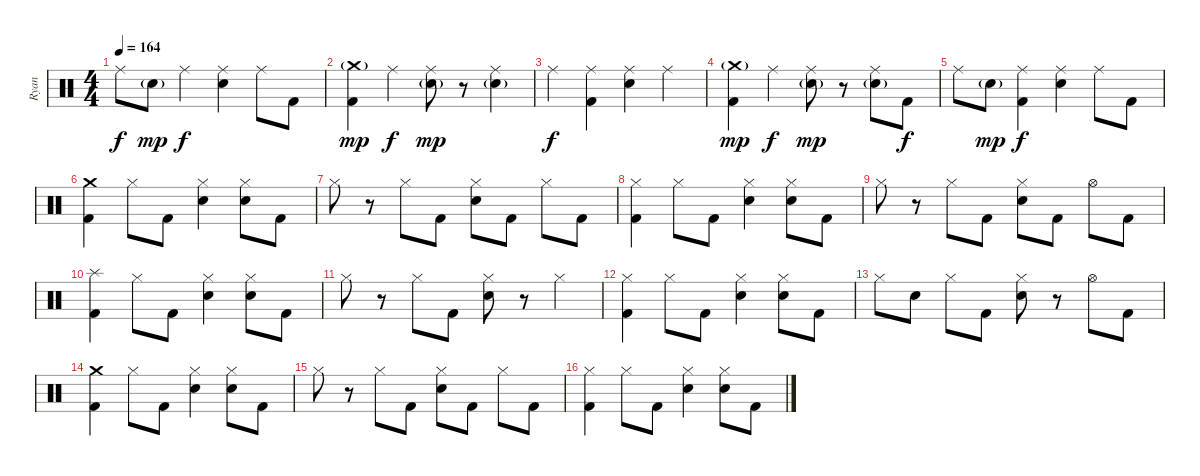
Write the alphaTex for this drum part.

\track ("Ryan" "Ryan") {instrument percussion}
\staff {score}
\articulation defaults
\ts (4 4)
\tempo 164
\clef neutral
\ks c "Ride (middle)".8{dy f} "Snare (hit) 2"{g}.8{dy mp} "Ride (middle)".4{dy f}
("Ride (middle)" "Electric Snare (hit)").4 "Ride (middle)".8 "Kick (hit) 2".8 |
("Crash medium (hit)"{g} "Kick (hit) 2").4{dy mp} "Ride (middle)".4{dy f} ("Ride (middle)" "Electric Snare (hit)"{g}).8{dy mp} r.8 ("Ride (middle)" "Electric Snare (hit)"{g}).4 |
"Ride (middle)".4{dy f} ("Ride (middle)" "Kick (hit) 2").4 ("Ride (middle)" "Electric Snare (hit)").4 "Ride (middle)".4 |
("Crash medium (hit)"{g} "Kick (hit) 2").4{dy mp} "Ride (middle)".4{dy f} ("Ride (middle)" "Electric Snare (hit)"{g}).8{dy mp} r.8 ("Ride (middle)" "Electric Snare (hit)"{g}).8 "Kick (hit) 2".8{dy f} |
"Ride (middle)".8 "Electric Snare (hit)"{g}.8{dy mp} ("Ride (middle)" "Kick (hit) 2").4{dy f} ("Ride (middle)" "Electric Snare (hit)").4 "Ride (middle)".8 "Kick (hit) 2".8 |
("Crash medium (hit)" "Kick (hit) 2").4 "Hi-Hat (closed)".8 "Kick (hit) 2".8 ("Hi-Hat (closed)" "Electric Snare (hit)").4 ("Hi-Hat (closed)" "Electric Snare (hit)").8 "Kick (hit) 2".8 |
"Hi-Hat (closed)".8 r.8 "Hi-Hat (closed)".8 "Kick (hit) 2".8 ("Hi-Hat (closed)" "Electric Snare (hit)").8 "Kick (hit) 2".8 "Hi-Hat (closed)".8 "Kick (hit) 2".8 |
("Hi-Hat (closed)" "Kick (hit) 2").4 "Hi-Hat (closed)".8 "Kick (hit) 2".8 ("Hi-Hat (closed)" "Electric Snare (hit)").4 ("Hi-Hat (closed)" "Electric Snare (hit)").8 "Kick (hit) 2".8 |
"Hi-Hat (closed)".8 r.8 "Hi-Hat (closed)".8 "Kick (hit) 2".8 ("Hi-Hat (closed)" "Electric Snare (hit)").8 "Kick (hit) 2".8 "Hi-Hat (open)".8 "Kick (hit) 2".8 |
("Splash (hit)" "Kick (hit) 2").4 "Hi-Hat (closed)".8 "Kick (hit) 2".8 ("Hi-Hat (closed)" "Electric Snare (hit)").4 ("Hi-Hat (closed)" "Electric Snare (hit)").8 "Kick (hit) 2".8 |
"Hi-Hat (closed)".8 r.8 "Hi-Hat (closed)".8 "Kick (hit) 2".8 ("Hi-Hat (closed)" "Electric Snare (hit)").8 r.8 "Hi-Hat (closed)".4 |
("Hi-Hat (closed)" "Kick (hit) 2").4 "Hi-Hat (closed)".8 "Kick (hit) 2".8 ("Hi-Hat (closed)" "Electric Snare (hit)").4 ("Hi-Hat (closed)" "Electric Snare (hit)").8 "Kick (hit) 2".8 |
"Hi-Hat (closed)".8 "Electric Snare (hit)".8 "Hi-Hat (closed)".8 "Kick (hit) 2".8 ("Hi-Hat (closed)" "Electric Snare (hit)").8 r.8 "Hi-Hat (open)".8 "Kick (hit) 2".8 |
("Crash medium (hit)" "Kick (hit) 2").4 "Hi-Hat (closed)".8 "Kick (hit) 2".8 ("Hi-Hat (closed)" "Electric Snare (hit)").4 ("Hi-Hat (closed)" "Electric Snare (hit)").8 "Kick (hit) 2".8 |
"Hi-Hat (closed)".8 r.8 "Hi-Hat (closed)".8 "Kick (hit) 2".8 ("Hi-Hat (closed)" "Electric Snare (hit)").8 "Kick (hit) 2".8 "Hi-Hat (closed)".8 "Kick (hit) 2".8 |
("Hi-Hat (closed)" "Kick (hit) 2").4 "Hi-Hat (closed)".8 "Kick (hit) 2".8 ("Hi-Hat (closed)" "Electric Snare (hit)").4 ("Hi-Hat (closed)" "Electric Snare (hit)").8 "Kick (hit) 2".8
